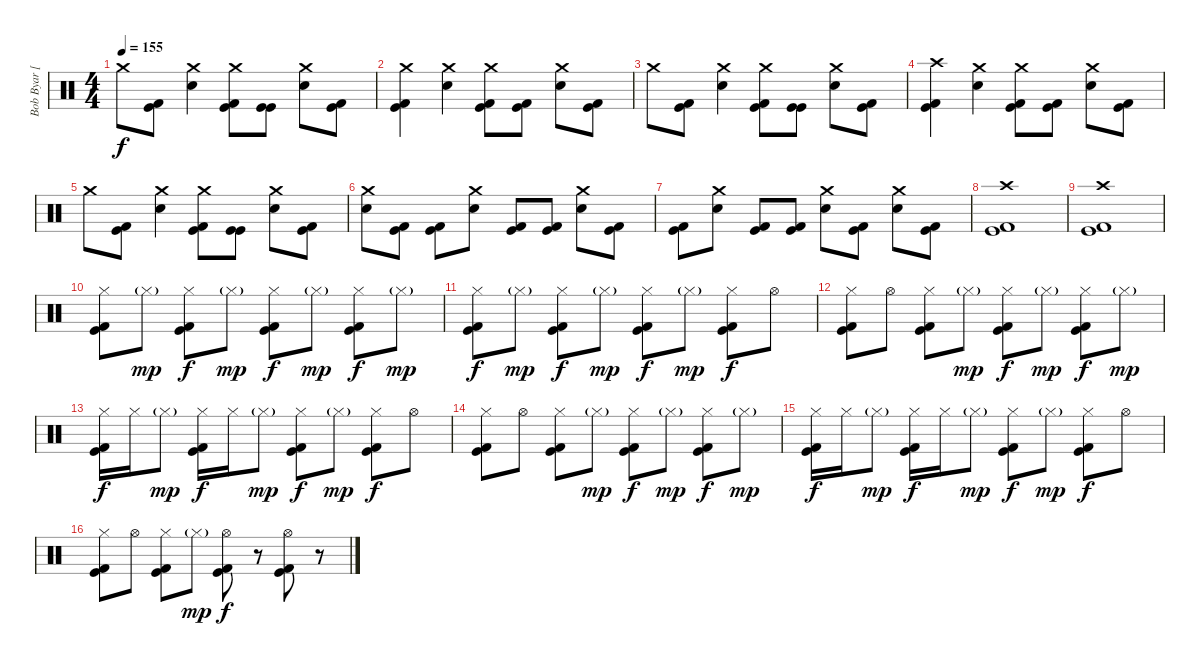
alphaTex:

\track ("Bob Byar [Drums]" "Bob Byar [") {instrument percussion}
\staff {score}
\articulation defaults
\ts (4 4)
\tempo 155
\clef neutral
\ks c "Crash medium (hit)".8{dy f}
("Kick (hit)" "Kick (hit) 2").8 ("Crash medium (hit)" "Electric Snare (hit)").4 ("Crash medium (hit)" "Kick (hit)" "Kick (hit) 2").8 ("Kick (hit)" "Kick (hit)").8 ("Crash medium (hit)" "Electric Snare (hit)").8 ("Kick (hit)" "Kick (hit) 2").8 |
("Crash medium (hit)" "Kick (hit)" "Kick (hit) 2").4 ("Crash medium (hit)" "Electric Snare (hit)").4 ("Crash medium (hit)" "Kick (hit)" "Kick (hit) 2").8 ("Kick (hit)" "Kick (hit) 2").8 ("Crash medium (hit)" "Electric Snare (hit)").8 ("Kick (hit)" "Kick (hit) 2").8 |
"Crash medium (hit)".8 ("Kick (hit)" "Kick (hit) 2").8 ("Crash medium (hit)" "Electric Snare (hit)").4 ("Crash medium (hit)" "Kick (hit)" "Kick (hit) 2").8 ("Kick (hit)" "Kick (hit)").8 ("Crash medium (hit)" "Electric Snare (hit)").8 ("Kick (hit)" "Kick (hit) 2").8 |
("Crash high (hit)" "Kick (hit)" "Kick (hit) 2").4 ("Crash medium (hit)" "Electric Snare (hit)").4 ("Crash medium (hit)" "Kick (hit)" "Kick (hit) 2").8 ("Kick (hit)" "Kick (hit) 2").8 ("Crash medium (hit)" "Electric Snare (hit)").8 ("Kick (hit)" "Kick (hit) 2").8 |
"Crash medium (hit)".8 ("Kick (hit)" "Kick (hit) 2").8 ("Crash medium (hit)" "Electric Snare (hit)").4 ("Crash medium (hit)" "Kick (hit)" "Kick (hit) 2").8 ("Kick (hit)" "Kick (hit)").8 ("Crash medium (hit)" "Electric Snare (hit)").8 ("Kick (hit)" "Kick (hit) 2").8 |
("Crash medium (hit)" "Electric Snare (hit)").8 ("Kick (hit)" "Kick (hit) 2").8 ("Kick (hit)" "Kick (hit) 2").8 ("Crash medium (hit)" "Electric Snare (hit)").8 ("Kick (hit)" "Kick (hit) 2").8 ("Kick (hit)" "Kick (hit) 2").8 ("Crash medium (hit)" "Electric Snare (hit)").8 ("Kick (hit)" "Kick (hit) 2").8 |
("Kick (hit)" "Kick (hit) 2").8 ("Crash medium (hit)" "Electric Snare (hit)").8 ("Kick (hit)" "Kick (hit) 2").8 ("Kick (hit)" "Kick (hit) 2").8 ("Crash medium (hit)" "Electric Snare (hit)").8 ("Kick (hit)" "Kick (hit) 2").8 ("Crash medium (hit)" "Electric Snare (hit)").8 ("Kick (hit)" "Kick (hit) 2").8 |
("Crash high (hit)" "Kick (hit)" "Kick (hit) 2").1 |
("Crash high (hit)" "Kick (hit)" "Kick (hit) 2").1 |
("Hi-Hat (closed)" "Kick (hit)" "Kick (hit) 2").8 "Hi-Hat (closed)"{g}.8{dy mp} ("Hi-Hat (closed)" "Kick (hit)" "Kick (hit) 2").8{dy f} "Hi-Hat (closed)"{g}.8{dy mp} ("Hi-Hat (closed)" "Kick (hit)" "Kick (hit) 2").8{dy f} "Hi-Hat (closed)"{g}.8{dy mp} ("Hi-Hat (closed)" "Kick (hit)" "Kick (hit) 2").8{dy f} "Hi-Hat (closed)"{g}.8{dy mp} |
("Hi-Hat (closed)" "Kick (hit)" "Kick (hit) 2").8{dy f} "Hi-Hat (closed)"{g}.8{dy mp} ("Hi-Hat (closed)" "Kick (hit)" "Kick (hit) 2").8{dy f} "Hi-Hat (closed)"{g}.8{dy mp} ("Hi-Hat (closed)" "Kick (hit)" "Kick (hit) 2").8{dy f} "Hi-Hat (closed)"{g}.8{dy mp} ("Hi-Hat (closed)" "Kick (hit)" "Kick (hit) 2").8{dy f} "Hi-Hat (open)".8 |
("Hi-Hat (closed)" "Kick (hit)" "Kick (hit) 2").8 "Hi-Hat (open)".8 ("Hi-Hat (closed)" "Kick (hit)" "Kick (hit) 2").8 "Hi-Hat (closed)"{g}.8{dy mp} ("Hi-Hat (closed)" "Kick (hit)" "Kick (hit) 2").8{dy f} "Hi-Hat (closed)"{g}.8{dy mp} ("Hi-Hat (closed)" "Kick (hit)" "Kick (hit) 2").8{dy f} "Hi-Hat (closed)"{g}.8{dy mp} |
("Hi-Hat (closed)" "Kick (hit)" "Kick (hit) 2").16{dy f} "Hi-Hat (closed)".16 "Hi-Hat (closed)"{g}.8{dy mp} ("Hi-Hat (closed)" "Kick (hit)" "Kick (hit) 2").16{dy f} "Hi-Hat (closed)".16 "Hi-Hat (closed)"{g}.8{dy mp} ("Hi-Hat (closed)" "Kick (hit)" "Kick (hit) 2").8{dy f} "Hi-Hat (closed)"{g}.8{dy mp} ("Hi-Hat (closed)" "Kick (hit)" "Kick (hit) 2").8{dy f} "Hi-Hat (open)".8 |
("Hi-Hat (closed)" "Kick (hit)" "Kick (hit) 2").8 "Hi-Hat (open)".8 ("Hi-Hat (closed)" "Kick (hit)" "Kick (hit) 2").8 "Hi-Hat (closed)"{g}.8{dy mp} ("Hi-Hat (closed)" "Kick (hit)" "Kick (hit) 2").8{dy f} "Hi-Hat (closed)"{g}.8{dy mp} ("Hi-Hat (closed)" "Kick (hit)" "Kick (hit) 2").8{dy f} "Hi-Hat (closed)"{g}.8{dy mp} |
("Hi-Hat (closed)" "Kick (hit)" "Kick (hit) 2").16{dy f} "Hi-Hat (closed)".16 "Hi-Hat (closed)"{g}.8{dy mp} ("Hi-Hat (closed)" "Kick (hit)" "Kick (hit) 2").16{dy f} "Hi-Hat (closed)".16 "Hi-Hat (closed)"{g}.8{dy mp} ("Hi-Hat (closed)" "Kick (hit)" "Kick (hit) 2").8{dy f} "Hi-Hat (closed)"{g}.8{dy mp} ("Hi-Hat (closed)" "Kick (hit)" "Kick (hit) 2").8{dy f} "Hi-Hat (open)".8 |
("Hi-Hat (closed)" "Kick (hit)" "Kick (hit) 2").8 "Hi-Hat (open)".8 ("Hi-Hat (closed)" "Kick (hit)" "Kick (hit) 2").8 "Hi-Hat (closed)"{g}.8{dy mp} ("Hi-Hat (open)" "Kick (hit)" "Kick (hit) 2").8{dy f} r.8 ("Hi-Hat (open)" "Kick (hit)" "Kick (hit) 2").8 r.8
